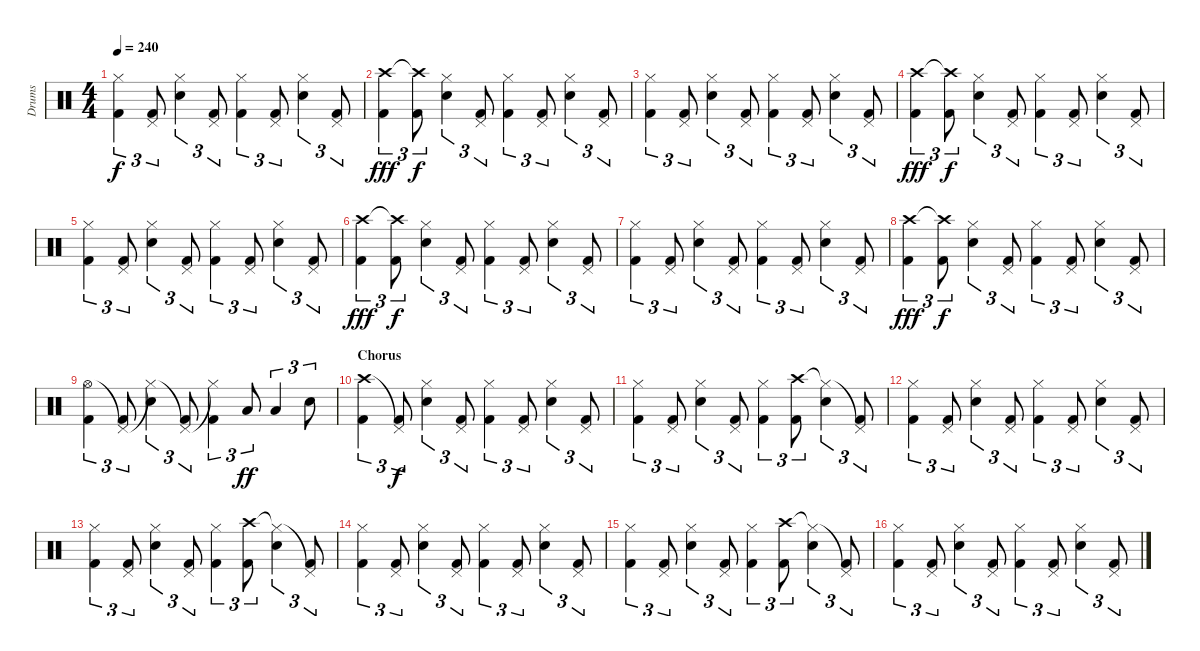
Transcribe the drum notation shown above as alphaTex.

\track ("Drums" "Drums") {instrument percussion}
\staff {score}
\articulation defaults
\ts (4 4)
\tempo 240
\clef neutral
\ks c
("Hi-Hat (closed)" "Kick (hit) 2").4{tu (3 2) dy f} ("Pedal Hi-Hat (hit)" "Kick (hit) 2").8{tu (3 2)} ("Hi-Hat (closed)" "Snare (hit) 2").4{tu (3 2)} ("Pedal Hi-Hat (hit)" "Kick (hit) 2").8{tu (3 2)} ("Hi-Hat (closed)" "Kick (hit) 2").4{tu (3 2)} ("Pedal Hi-Hat (hit)" "Kick (hit) 2").8{tu (3 2)} ("Hi-Hat (closed)" "Snare (hit) 2").4{tu (3 2)} ("Pedal Hi-Hat (hit)" "Kick (hit) 2").8{tu (3 2)} |
("Crash high (hit)" "Kick (hit) 2").4{tu (3 2) dy fff} ("Crash high (hit)"{t} "Kick (hit) 2").8{tu (3 2) dy f} ("Hi-Hat (closed)" "Snare (hit) 2").4{tu (3 2)} ("Pedal Hi-Hat (hit)" "Kick (hit) 2").8{tu (3 2)} ("Hi-Hat (closed)" "Kick (hit) 2").4{tu (3 2)} ("Pedal Hi-Hat (hit)" "Kick (hit) 2").8{tu (3 2)} ("Hi-Hat (closed)" "Snare (hit) 2").4{tu (3 2)} ("Pedal Hi-Hat (hit)" "Kick (hit) 2").8{tu (3 2)} |
("Hi-Hat (closed)" "Kick (hit) 2").4{tu (3 2)} ("Pedal Hi-Hat (hit)" "Kick (hit) 2").8{tu (3 2)} ("Hi-Hat (closed)" "Snare (hit) 2").4{tu (3 2)} ("Pedal Hi-Hat (hit)" "Kick (hit) 2").8{tu (3 2)} ("Hi-Hat (closed)" "Kick (hit) 2").4{tu (3 2)} ("Pedal Hi-Hat (hit)" "Kick (hit) 2").8{tu (3 2)} ("Hi-Hat (closed)" "Snare (hit) 2").4{tu (3 2)} ("Pedal Hi-Hat (hit)" "Kick (hit) 2").8{tu (3 2)} |
("Crash high (hit)" "Kick (hit) 2").4{tu (3 2) dy fff} ("Crash high (hit)"{t} "Kick (hit) 2").8{tu (3 2) dy f} ("Hi-Hat (closed)" "Snare (hit) 2").4{tu (3 2)} ("Pedal Hi-Hat (hit)" "Kick (hit) 2").8{tu (3 2)} ("Hi-Hat (closed)" "Kick (hit) 2").4{tu (3 2)} ("Pedal Hi-Hat (hit)" "Kick (hit) 2").8{tu (3 2)} ("Hi-Hat (closed)" "Snare (hit) 2").4{tu (3 2)} ("Pedal Hi-Hat (hit)" "Kick (hit) 2").8{tu (3 2)} |
("Hi-Hat (closed)" "Kick (hit) 2").4{tu (3 2)} ("Pedal Hi-Hat (hit)" "Kick (hit) 2").8{tu (3 2)} ("Hi-Hat (closed)" "Snare (hit) 2").4{tu (3 2)} ("Pedal Hi-Hat (hit)" "Kick (hit) 2").8{tu (3 2)} ("Hi-Hat (closed)" "Kick (hit) 2").4{tu (3 2)} ("Pedal Hi-Hat (hit)" "Kick (hit) 2").8{tu (3 2)} ("Hi-Hat (closed)" "Snare (hit) 2").4{tu (3 2)} ("Pedal Hi-Hat (hit)" "Kick (hit) 2").8{tu (3 2)} |
("Crash high (hit)" "Kick (hit) 2").4{tu (3 2) dy fff} ("Crash high (hit)"{t} "Kick (hit) 2").8{tu (3 2) dy f} ("Hi-Hat (closed)" "Snare (hit) 2").4{tu (3 2)} ("Pedal Hi-Hat (hit)" "Kick (hit) 2").8{tu (3 2)} ("Hi-Hat (closed)" "Kick (hit) 2").4{tu (3 2)} ("Pedal Hi-Hat (hit)" "Kick (hit) 2").8{tu (3 2)} ("Hi-Hat (closed)" "Snare (hit) 2").4{tu (3 2)} ("Pedal Hi-Hat (hit)" "Kick (hit) 2").8{tu (3 2)} |
("Hi-Hat (closed)" "Kick (hit) 2").4{tu (3 2)} ("Pedal Hi-Hat (hit)" "Kick (hit) 2").8{tu (3 2)} ("Hi-Hat (closed)" "Snare (hit) 2").4{tu (3 2)} ("Pedal Hi-Hat (hit)" "Kick (hit) 2").8{tu (3 2)} ("Hi-Hat (closed)" "Kick (hit) 2").4{tu (3 2)} ("Pedal Hi-Hat (hit)" "Kick (hit) 2").8{tu (3 2)} ("Hi-Hat (closed)" "Snare (hit) 2").4{tu (3 2)} ("Pedal Hi-Hat (hit)" "Kick (hit) 2").8{tu (3 2)} |
("Crash high (hit)" "Kick (hit) 2").4{tu (3 2) dy fff} ("Crash high (hit)"{t} "Kick (hit) 2").8{tu (3 2) dy f} ("Hi-Hat (closed)" "Snare (hit) 2").4{tu (3 2)} ("Pedal Hi-Hat (hit)" "Kick (hit) 2").8{tu (3 2)} ("Hi-Hat (closed)" "Kick (hit) 2").4{tu (3 2)} ("Pedal Hi-Hat (hit)" "Kick (hit) 2").8{tu (3 2)} ("Hi-Hat (closed)" "Snare (hit) 2").4{tu (3 2)} ("Pedal Hi-Hat (hit)" "Kick (hit) 2").8{tu (3 2)} |
("Hi-Hat (open)" "Kick (hit) 2").4{tu (3 2)} ("Pedal Hi-Hat (hit)"{t} "Kick (hit) 2").8{tu (3 2)} ("Hi-Hat (closed)"{t} "Snare (hit) 2").4{tu (3 2)} ("Pedal Hi-Hat (hit)"{t} "Kick (hit) 2").8{tu (3 2)} ("Hi-Hat (closed)"{t} "Kick (hit) 2").4{tu (3 2)} "Low Tom (hit)".8{tu (3 2) dy ff} "Low Floor Tom (hit)".4{tu (3 2)} "Electric Snare (hit)".8{tu (3 2)} |
\section ("" "Chorus")
("Crash high (hit)" "Kick (hit) 2").4{tu (3 2)} ("Pedal Hi-Hat (hit)"{t} "Kick (hit) 2").8{tu (3 2) dy f} ("Hi-Hat (closed)" "Snare (hit) 2").4{tu (3 2)} ("Pedal Hi-Hat (hit)" "Kick (hit) 2").8{tu (3 2)} ("Hi-Hat (closed)" "Kick (hit) 2").4{tu (3 2)} ("Pedal Hi-Hat (hit)" "Kick (hit) 2").8{tu (3 2)} ("Hi-Hat (closed)" "Snare (hit) 2").4{tu (3 2)} ("Pedal Hi-Hat (hit)" "Kick (hit) 2").8{tu (3 2)} |
("Hi-Hat (closed)" "Kick (hit) 2").4{tu (3 2)} ("Pedal Hi-Hat (hit)" "Kick (hit) 2").8{tu (3 2)} ("Hi-Hat (closed)" "Snare (hit) 2").4{tu (3 2)} ("Pedal Hi-Hat (hit)" "Kick (hit) 2").8{tu (3 2)} ("Hi-Hat (closed)" "Kick (hit) 2").4{tu (3 2)} ("Crash high (hit)" "Kick (hit) 2").8{tu (3 2)} ("Hi-Hat (closed)"{t} "Snare (hit) 2").4{tu (3 2)} ("Pedal Hi-Hat (hit)"{t} "Kick (hit) 2").8{tu (3 2)} |
("Hi-Hat (closed)" "Kick (hit) 2").4{tu (3 2)} ("Pedal Hi-Hat (hit)" "Kick (hit) 2").8{tu (3 2)} ("Hi-Hat (closed)" "Snare (hit) 2").4{tu (3 2)} ("Pedal Hi-Hat (hit)" "Kick (hit) 2").8{tu (3 2)} ("Hi-Hat (closed)" "Kick (hit) 2").4{tu (3 2)} ("Pedal Hi-Hat (hit)" "Kick (hit) 2").8{tu (3 2)} ("Hi-Hat (closed)" "Snare (hit) 2").4{tu (3 2)} ("Pedal Hi-Hat (hit)" "Kick (hit) 2").8{tu (3 2)} |
("Hi-Hat (closed)" "Kick (hit) 2").4{tu (3 2)} ("Pedal Hi-Hat (hit)" "Kick (hit) 2").8{tu (3 2)} ("Hi-Hat (closed)" "Snare (hit) 2").4{tu (3 2)} ("Pedal Hi-Hat (hit)" "Kick (hit) 2").8{tu (3 2)} ("Hi-Hat (closed)" "Kick (hit) 2").4{tu (3 2)} ("Crash high (hit)" "Kick (hit) 2").8{tu (3 2)} ("Hi-Hat (closed)"{t} "Snare (hit) 2").4{tu (3 2)} ("Pedal Hi-Hat (hit)"{t} "Kick (hit) 2").8{tu (3 2)} |
("Hi-Hat (closed)" "Kick (hit) 2").4{tu (3 2)} ("Pedal Hi-Hat (hit)" "Kick (hit) 2").8{tu (3 2)} ("Hi-Hat (closed)" "Snare (hit) 2").4{tu (3 2)} ("Pedal Hi-Hat (hit)" "Kick (hit) 2").8{tu (3 2)} ("Hi-Hat (closed)" "Kick (hit) 2").4{tu (3 2)} ("Pedal Hi-Hat (hit)" "Kick (hit) 2").8{tu (3 2)} ("Hi-Hat (closed)" "Snare (hit) 2").4{tu (3 2)} ("Pedal Hi-Hat (hit)" "Kick (hit) 2").8{tu (3 2)} |
("Hi-Hat (closed)" "Kick (hit) 2").4{tu (3 2)} ("Pedal Hi-Hat (hit)" "Kick (hit) 2").8{tu (3 2)} ("Hi-Hat (closed)" "Snare (hit) 2").4{tu (3 2)} ("Pedal Hi-Hat (hit)" "Kick (hit) 2").8{tu (3 2)} ("Hi-Hat (closed)" "Kick (hit) 2").4{tu (3 2)} ("Crash high (hit)" "Kick (hit) 2").8{tu (3 2)} ("Hi-Hat (closed)"{t} "Snare (hit) 2").4{tu (3 2)} ("Pedal Hi-Hat (hit)"{t} "Kick (hit) 2").8{tu (3 2)} |
("Hi-Hat (closed)" "Kick (hit) 2").4{tu (3 2)} ("Pedal Hi-Hat (hit)" "Kick (hit) 2").8{tu (3 2)} ("Hi-Hat (closed)" "Snare (hit) 2").4{tu (3 2)} ("Pedal Hi-Hat (hit)" "Kick (hit) 2").8{tu (3 2)} ("Hi-Hat (closed)" "Kick (hit) 2").4{tu (3 2)} ("Pedal Hi-Hat (hit)" "Kick (hit) 2").8{tu (3 2)} ("Hi-Hat (closed)" "Snare (hit) 2").4{tu (3 2)} ("Pedal Hi-Hat (hit)" "Kick (hit) 2").8{tu (3 2)}
